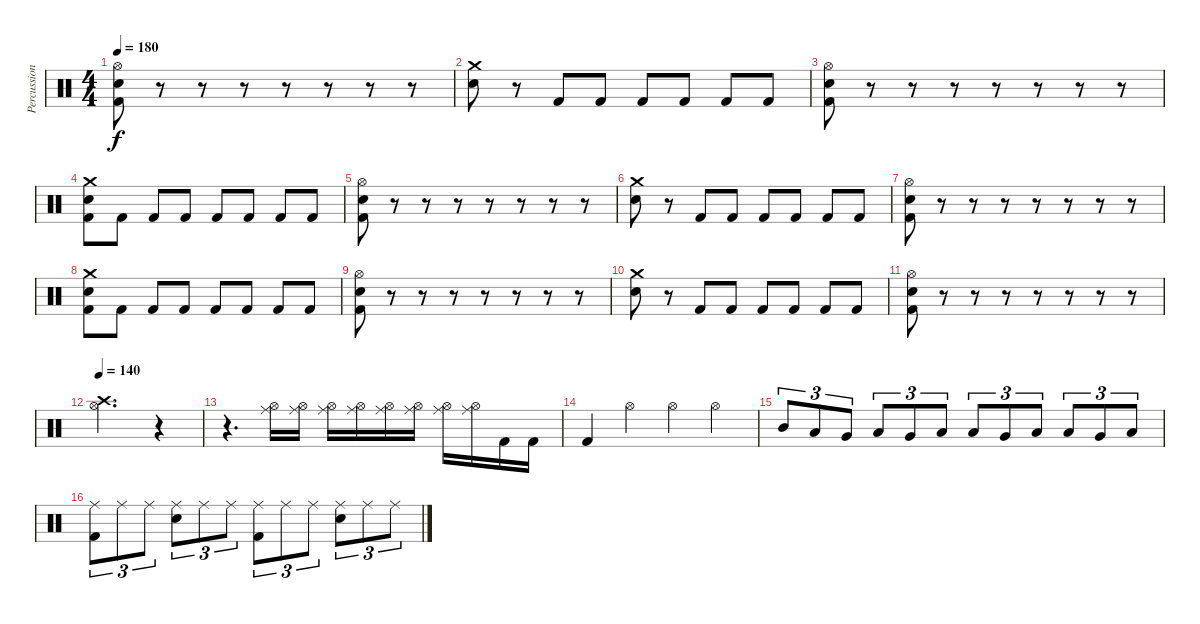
\track ("Percussion" "Percussion") {instrument percussion}
\staff {score}
\articulation defaults
\ts (4 4)
\tempo 180
\clef neutral
\ks c
("Hi-Hat (open)" "Snare (hit) 2" "Kick (hit) 2").8{dy f} r.8 r.8 r.8 r.8 r.8 r.8 r.8 |
("Crash medium (hit)" "Snare (hit) 2").8 r.8 "Kick (hit) 2".8 "Kick (hit) 2".8 "Kick (hit) 2".8 "Kick (hit) 2".8 "Kick (hit) 2".8 "Kick (hit) 2".8 |
("Hi-Hat (open)" "Snare (hit) 2" "Kick (hit) 2").8 r.8 r.8 r.8 r.8 r.8 r.8 r.8 |
("Crash medium (hit)" "Snare (hit) 2" "Kick (hit) 2").8 "Kick (hit) 2".8 "Kick (hit) 2".8 "Kick (hit) 2".8 "Kick (hit) 2".8 "Kick (hit) 2".8 "Kick (hit) 2".8 "Kick (hit) 2".8 |
("Hi-Hat (open)" "Snare (hit) 2" "Kick (hit) 2").8 r.8 r.8 r.8 r.8 r.8 r.8 r.8 |
("Crash medium (hit)" "Snare (hit) 2").8 r.8 "Kick (hit) 2".8 "Kick (hit) 2".8 "Kick (hit) 2".8 "Kick (hit) 2".8 "Kick (hit) 2".8 "Kick (hit) 2".8 |
("Hi-Hat (open)" "Snare (hit) 2" "Kick (hit) 2").8 r.8 r.8 r.8 r.8 r.8 r.8 r.8 |
("Crash medium (hit)" "Snare (hit) 2" "Kick (hit) 2").8 "Kick (hit) 2".8 "Kick (hit) 2".8 "Kick (hit) 2".8 "Kick (hit) 2".8 "Kick (hit) 2".8 "Kick (hit) 2".8 "Kick (hit) 2".8 |
("Hi-Hat (open)" "Snare (hit) 2" "Kick (hit) 2").8 r.8 r.8 r.8 r.8 r.8 r.8 r.8 |
("Crash medium (hit)" "Snare (hit) 2").8 r.8 "Kick (hit) 2".8 "Kick (hit) 2".8 "Kick (hit) 2".8 "Kick (hit) 2".8 "Kick (hit) 2".8 "Kick (hit) 2".8 |
("Hi-Hat (open)" "Snare (hit) 2" "Kick (hit) 2").8 r.8 r.8 r.8 r.8 r.8 r.8 r.8 |
\tempo 140
("Crash high (hit)" "Hi-Hat (open)").2{d} r.4{volume 3} |
r.4{d} ("Ride (middle)" "Hi-Hat (open)").16{volume 16} ("Ride (middle)" "Hi-Hat (open)").16 ("Ride (middle)" "Hi-Hat (open)").16 ("Ride (middle)" "Hi-Hat (open)").16 ("Ride (middle)" "Hi-Hat (open)").16 ("Ride (middle)" "Hi-Hat (open)").16 ("Ride (middle)" "Hi-Hat (open)").16 ("Ride (middle)" "Hi-Hat (open)").16 "Kick (hit) 2".16 "Kick (hit) 2".16 |
"Kick (hit) 2".4 "Hi-Hat (open)".4 "Hi-Hat (open)".4 "Hi-Hat (open)".4 |
"Mid Tom (hit)".8{tu (3 2)} "Low Tom (hit)".8{tu (3 2)} "Very Low Tom (hit)".8{tu (3 2)} "Low Tom (hit)".8{tu (3 2)} "Very Low Tom (hit)".8{tu (3 2)} "Low Floor Tom (hit)".8{tu (3 2)} "Low Tom (hit)".8{tu (3 2)} "Very Low Tom (hit)".8{tu (3 2)} "Low Floor Tom (hit)".8{tu (3 2)} "Low Tom (hit)".8{tu (3 2)} "Very Low Tom (hit)".8{tu (3 2)} "Low Floor Tom (hit)".8{tu (3 2)} |
("Ride (middle)" "Kick (hit) 2").8{tu (3 2)} "Ride (middle)".8{tu (3 2)} "Ride (middle)".8{tu (3 2)} ("Ride (middle)" "Snare (hit) 2").8{tu (3 2)} "Ride (middle)".8{tu (3 2)} "Ride (middle)".8{tu (3 2)} ("Ride (middle)" "Kick (hit) 2").8{tu (3 2)} "Ride (middle)".8{tu (3 2)} "Ride (middle)".8{tu (3 2)} ("Ride (middle)" "Snare (hit) 2").8{tu (3 2)} "Ride (middle)".8{tu (3 2)} "Ride (middle)".8{tu (3 2)}
